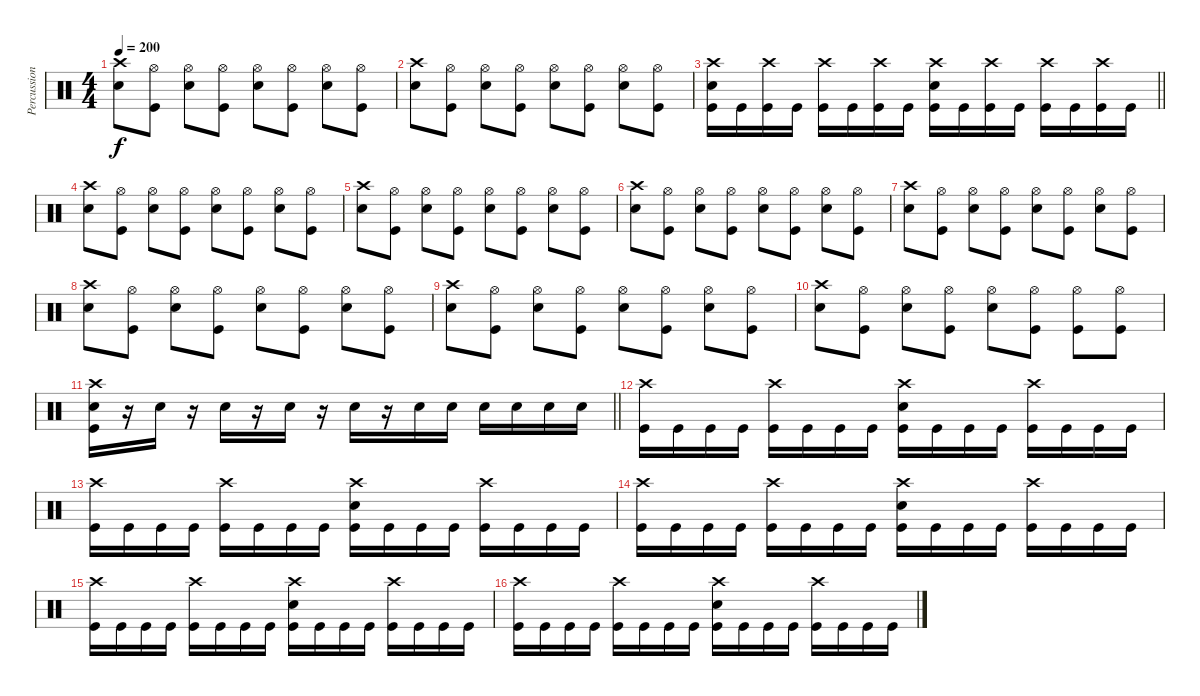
\track ("Percussion" "Percussion") {instrument percussion}
\staff {score}
\articulation defaults
\ts (4 4)
\tempo 200
\clef neutral
\ks c
("Crash high (hit)" "Electric Snare (hit)").8{dy f} ("Hi-Hat (open)" "Kick (hit)").8 ("Hi-Hat (open)" "Electric Snare (hit)").8 ("Hi-Hat (open)" "Kick (hit)").8 ("Hi-Hat (open)" "Electric Snare (hit)").8 ("Hi-Hat (open)" "Kick (hit)").8 ("Hi-Hat (open)" "Electric Snare (hit)").8 ("Hi-Hat (open)" "Kick (hit)").8 |
("Crash high (hit)" "Electric Snare (hit)").8 ("Hi-Hat (open)" "Kick (hit)").8 ("Hi-Hat (open)" "Electric Snare (hit)").8 ("Hi-Hat (open)" "Kick (hit)").8 ("Hi-Hat (open)" "Electric Snare (hit)").8 ("Hi-Hat (open)" "Kick (hit)").8 ("Hi-Hat (open)" "Electric Snare (hit)").8 ("Hi-Hat (open)" "Kick (hit)").8 |
\barLineRight lightlight
("Crash high (hit)" "Kick (hit)" "Electric Snare (hit)").16 "Kick (hit)".16 ("Crash high (hit)" "Kick (hit)").16 "Kick (hit)".16 ("Crash high (hit)" "Kick (hit)").16 "Kick (hit)".16 ("Crash high (hit)" "Kick (hit)").16 "Kick (hit)".16 ("Crash high (hit)" "Kick (hit)" "Electric Snare (hit)").16 "Kick (hit)".16 ("Crash high (hit)" "Kick (hit)").16 "Kick (hit)".16 ("Crash high (hit)" "Kick (hit)").16 "Kick (hit)".16 ("Crash high (hit)" "Kick (hit)").16 "Kick (hit)".16 |
("Crash high (hit)" "Electric Snare (hit)").8 ("Hi-Hat (open)" "Kick (hit)").8 ("Hi-Hat (open)" "Electric Snare (hit)").8 ("Hi-Hat (open)" "Kick (hit)").8 ("Hi-Hat (open)" "Electric Snare (hit)").8 ("Hi-Hat (open)" "Kick (hit)").8 ("Hi-Hat (open)" "Electric Snare (hit)").8 ("Hi-Hat (open)" "Kick (hit)").8 |
("Crash high (hit)" "Electric Snare (hit)").8 ("Hi-Hat (open)" "Kick (hit)").8 ("Hi-Hat (open)" "Electric Snare (hit)").8 ("Hi-Hat (open)" "Kick (hit)").8 ("Hi-Hat (open)" "Electric Snare (hit)").8 ("Hi-Hat (open)" "Kick (hit)").8 ("Hi-Hat (open)" "Electric Snare (hit)").8 ("Hi-Hat (open)" "Kick (hit)").8 |
("Crash high (hit)" "Electric Snare (hit)").8 ("Hi-Hat (open)" "Kick (hit)").8 ("Hi-Hat (open)" "Electric Snare (hit)").8 ("Hi-Hat (open)" "Kick (hit)").8 ("Hi-Hat (open)" "Electric Snare (hit)").8 ("Hi-Hat (open)" "Kick (hit)").8 ("Hi-Hat (open)" "Electric Snare (hit)").8 ("Hi-Hat (open)" "Kick (hit)").8 |
("Crash high (hit)" "Electric Snare (hit)").8 ("Hi-Hat (open)" "Kick (hit)").8 ("Hi-Hat (open)" "Electric Snare (hit)").8 ("Hi-Hat (open)" "Kick (hit)").8 ("Hi-Hat (open)" "Electric Snare (hit)").8 ("Hi-Hat (open)" "Kick (hit)").8 ("Hi-Hat (open)" "Electric Snare (hit)").8 ("Hi-Hat (open)" "Kick (hit)").8 |
("Crash high (hit)" "Electric Snare (hit)").8 ("Hi-Hat (open)" "Kick (hit)").8 ("Hi-Hat (open)" "Electric Snare (hit)").8 ("Hi-Hat (open)" "Kick (hit)").8 ("Hi-Hat (open)" "Electric Snare (hit)").8 ("Hi-Hat (open)" "Kick (hit)").8 ("Hi-Hat (open)" "Electric Snare (hit)").8 ("Hi-Hat (open)" "Kick (hit)").8 |
("Crash high (hit)" "Electric Snare (hit)").8 ("Hi-Hat (open)" "Kick (hit)").8 ("Hi-Hat (open)" "Electric Snare (hit)").8 ("Hi-Hat (open)" "Kick (hit)").8 ("Hi-Hat (open)" "Electric Snare (hit)").8 ("Hi-Hat (open)" "Kick (hit)").8 ("Hi-Hat (open)" "Electric Snare (hit)").8 ("Hi-Hat (open)" "Kick (hit)").8 |
("Crash high (hit)" "Electric Snare (hit)").8 ("Hi-Hat (open)" "Kick (hit)").8 ("Hi-Hat (open)" "Electric Snare (hit)").8 ("Hi-Hat (open)" "Kick (hit)").8 ("Hi-Hat (open)" "Electric Snare (hit)").8 ("Hi-Hat (open)" "Kick (hit)").8 ("Hi-Hat (open)" "Kick (hit)").8 ("Hi-Hat (open)" "Kick (hit)").8 |
\barLineRight lightlight
("Crash high (hit)" "Kick (hit)" "Electric Snare (hit)").16 r.16 "Electric Snare (hit)".16 r.16 "Electric Snare (hit)".16 r.16 "Electric Snare (hit)".16 r.16 "Electric Snare (hit)".16 r.16 "Electric Snare (hit)".16 "Electric Snare (hit)".16 "Electric Snare (hit)".16 "Electric Snare (hit)".16 "Electric Snare (hit)".16 "Electric Snare (hit)".16 |
("Crash high (hit)" "Kick (hit)").16 "Kick (hit)".16 "Kick (hit)".16 "Kick (hit)".16 ("Crash high (hit)" "Kick (hit)").16 "Kick (hit)".16 "Kick (hit)".16 "Kick (hit)".16 ("Crash high (hit)" "Electric Snare (hit)" "Kick (hit)").16 "Kick (hit)".16 "Kick (hit)".16 "Kick (hit)".16 ("Crash high (hit)" "Kick (hit)").16 "Kick (hit)".16 "Kick (hit)".16 "Kick (hit)".16 |
("Crash high (hit)" "Kick (hit)").16 "Kick (hit)".16 "Kick (hit)".16 "Kick (hit)".16 ("Crash high (hit)" "Kick (hit)").16 "Kick (hit)".16 "Kick (hit)".16 "Kick (hit)".16 ("Crash high (hit)" "Electric Snare (hit)" "Kick (hit)").16 "Kick (hit)".16 "Kick (hit)".16 "Kick (hit)".16 ("Crash high (hit)" "Kick (hit)").16 "Kick (hit)".16 "Kick (hit)".16 "Kick (hit)".16 |
("Crash high (hit)" "Kick (hit)").16 "Kick (hit)".16 "Kick (hit)".16 "Kick (hit)".16 ("Crash high (hit)" "Kick (hit)").16 "Kick (hit)".16 "Kick (hit)".16 "Kick (hit)".16 ("Crash high (hit)" "Electric Snare (hit)" "Kick (hit)").16 "Kick (hit)".16 "Kick (hit)".16 "Kick (hit)".16 ("Crash high (hit)" "Kick (hit)").16 "Kick (hit)".16 "Kick (hit)".16 "Kick (hit)".16 |
("Crash high (hit)" "Kick (hit)").16 "Kick (hit)".16 "Kick (hit)".16 "Kick (hit)".16 ("Crash high (hit)" "Kick (hit)").16 "Kick (hit)".16 "Kick (hit)".16 "Kick (hit)".16 ("Crash high (hit)" "Electric Snare (hit)" "Kick (hit)").16 "Kick (hit)".16 "Kick (hit)".16 "Kick (hit)".16 ("Crash high (hit)" "Kick (hit)").16 "Kick (hit)".16 "Kick (hit)".16 "Kick (hit)".16 |
("Crash high (hit)" "Kick (hit)").16 "Kick (hit)".16 "Kick (hit)".16 "Kick (hit)".16 ("Crash high (hit)" "Kick (hit)").16 "Kick (hit)".16 "Kick (hit)".16 "Kick (hit)".16 ("Crash high (hit)" "Electric Snare (hit)" "Kick (hit)").16 "Kick (hit)".16 "Kick (hit)".16 "Kick (hit)".16 ("Crash high (hit)" "Kick (hit)").16 "Kick (hit)".16 "Kick (hit)".16 "Kick (hit)".16
